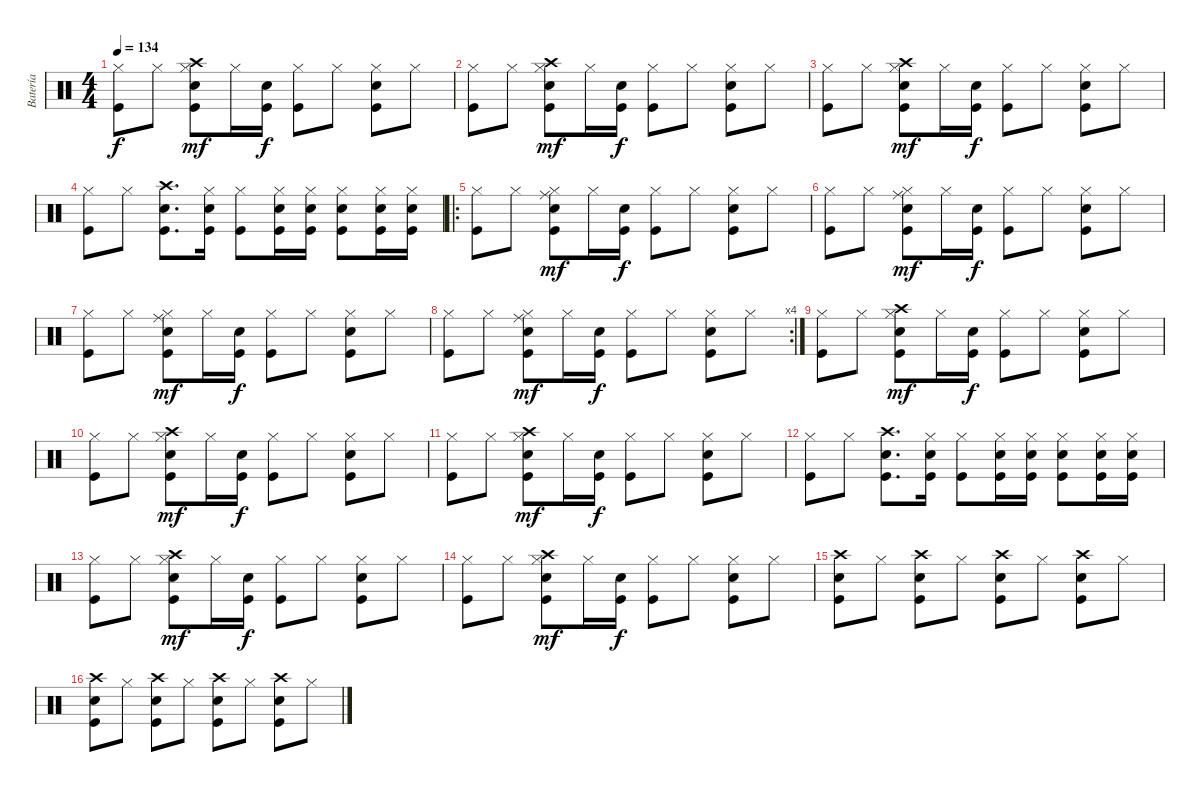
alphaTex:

\track ("Batería" "Batería") {instrument percussion}
\staff {score}
\articulation defaults
\ts (4 4)
\tempo 134
\clef neutral
\ks c
("Hi-Hat (closed)" "Kick (hit)").8{dy f} "Hi-Hat (closed)".8 ("Snare (hit) 2" "Crash high (hit)" "Kick (hit)" "Hi-Hat (closed)").8{dy mf} "Hi-Hat (closed)".16 ("Snare (hit) 2" "Kick (hit)").16{dy f} ("Hi-Hat (closed)" "Kick (hit)").8 "Hi-Hat (closed)".8 ("Hi-Hat (closed)" "Snare (hit) 2" "Kick (hit)").8 "Hi-Hat (closed)".8 |
("Hi-Hat (closed)" "Kick (hit)").8 "Hi-Hat (closed)".8 ("Snare (hit) 2" "Crash high (hit)" "Kick (hit)" "Hi-Hat (closed)").8{dy mf} "Hi-Hat (closed)".16 ("Snare (hit) 2" "Kick (hit)").16{dy f} ("Hi-Hat (closed)" "Kick (hit)").8 "Hi-Hat (closed)".8 ("Hi-Hat (closed)" "Snare (hit) 2" "Kick (hit)").8 "Hi-Hat (closed)".8 |
("Hi-Hat (closed)" "Kick (hit)").8 "Hi-Hat (closed)".8 ("Snare (hit) 2" "Crash high (hit)" "Kick (hit)" "Hi-Hat (closed)").8{dy mf} "Hi-Hat (closed)".16 ("Snare (hit) 2" "Kick (hit)").16{dy f} ("Hi-Hat (closed)" "Kick (hit)").8 "Hi-Hat (closed)".8 ("Hi-Hat (closed)" "Snare (hit) 2" "Kick (hit)").8 "Hi-Hat (closed)".8 |
("Hi-Hat (closed)" "Kick (hit)").8 "Hi-Hat (closed)".8 ("Snare (hit) 2" "Crash high (hit)" "Kick (hit)").8{d} ("Hi-Hat (closed)" "Snare (hit) 2" "Kick (hit)").16 ("Hi-Hat (closed)" "Kick (hit)").8 ("Hi-Hat (closed)" "Snare (hit) 2" "Kick (hit)").16 ("Hi-Hat (closed)" "Snare (hit) 2" "Kick (hit)").16 ("Hi-Hat (closed)" "Snare (hit) 2" "Kick (hit)").8 ("Hi-Hat (closed)" "Snare (hit) 2" "Kick (hit)").16 ("Hi-Hat (closed)" "Snare (hit) 2" "Kick (hit)").16 |
\ro
("Hi-Hat (closed)" "Kick (hit)").8 "Hi-Hat (closed)".8 ("Snare (hit) 2" "Ride (middle)" "Kick (hit)" "Hi-Hat (closed)").8{dy mf} "Hi-Hat (closed)".16 ("Snare (hit) 2" "Kick (hit)").16{dy f} ("Hi-Hat (closed)" "Kick (hit)").8 "Hi-Hat (closed)".8 ("Hi-Hat (closed)" "Snare (hit) 2" "Kick (hit)").8 "Hi-Hat (closed)".8 |
("Hi-Hat (closed)" "Kick (hit)").8 "Hi-Hat (closed)".8 ("Snare (hit) 2" "Ride (middle)" "Kick (hit)" "Hi-Hat (closed)").8{dy mf} "Hi-Hat (closed)".16 ("Snare (hit) 2" "Kick (hit)").16{dy f} ("Hi-Hat (closed)" "Kick (hit)").8 "Hi-Hat (closed)".8 ("Hi-Hat (closed)" "Snare (hit) 2" "Kick (hit)").8 "Hi-Hat (closed)".8 |
("Hi-Hat (closed)" "Kick (hit)").8 "Hi-Hat (closed)".8 ("Snare (hit) 2" "Ride (middle)" "Kick (hit)" "Hi-Hat (closed)").8{dy mf} "Hi-Hat (closed)".16 ("Snare (hit) 2" "Kick (hit)").16{dy f} ("Hi-Hat (closed)" "Kick (hit)").8 "Hi-Hat (closed)".8 ("Hi-Hat (closed)" "Snare (hit) 2" "Kick (hit)").8 "Hi-Hat (closed)".8 |
\rc 4
("Hi-Hat (closed)" "Kick (hit)").8 "Hi-Hat (closed)".8 ("Snare (hit) 2" "Ride (middle)" "Kick (hit)" "Hi-Hat (closed)").8{dy mf} "Hi-Hat (closed)".16 ("Snare (hit) 2" "Kick (hit)").16{dy f} ("Hi-Hat (closed)" "Kick (hit)").8 "Hi-Hat (closed)".8 ("Hi-Hat (closed)" "Snare (hit) 2" "Kick (hit)").8 "Hi-Hat (closed)".8 |
("Hi-Hat (closed)" "Kick (hit)").8 "Hi-Hat (closed)".8 ("Snare (hit) 2" "Crash high (hit)" "Kick (hit)" "Hi-Hat (closed)").8{dy mf} "Hi-Hat (closed)".16 ("Snare (hit) 2" "Kick (hit)").16{dy f} ("Hi-Hat (closed)" "Kick (hit)").8 "Hi-Hat (closed)".8 ("Hi-Hat (closed)" "Snare (hit) 2" "Kick (hit)").8 "Hi-Hat (closed)".8 |
("Hi-Hat (closed)" "Kick (hit)").8 "Hi-Hat (closed)".8 ("Snare (hit) 2" "Crash high (hit)" "Kick (hit)" "Hi-Hat (closed)").8{dy mf} "Hi-Hat (closed)".16 ("Snare (hit) 2" "Kick (hit)").16{dy f} ("Hi-Hat (closed)" "Kick (hit)").8 "Hi-Hat (closed)".8 ("Hi-Hat (closed)" "Snare (hit) 2" "Kick (hit)").8 "Hi-Hat (closed)".8 |
("Hi-Hat (closed)" "Kick (hit)").8 "Hi-Hat (closed)".8 ("Snare (hit) 2" "Crash high (hit)" "Kick (hit)" "Hi-Hat (closed)").8{dy mf} "Hi-Hat (closed)".16 ("Snare (hit) 2" "Kick (hit)").16{dy f} ("Hi-Hat (closed)" "Kick (hit)").8 "Hi-Hat (closed)".8 ("Hi-Hat (closed)" "Snare (hit) 2" "Kick (hit)").8 "Hi-Hat (closed)".8 |
("Hi-Hat (closed)" "Kick (hit)").8 "Hi-Hat (closed)".8 ("Snare (hit) 2" "Crash high (hit)" "Kick (hit)").8{d} ("Hi-Hat (closed)" "Snare (hit) 2" "Kick (hit)").16 ("Hi-Hat (closed)" "Kick (hit)").8 ("Hi-Hat (closed)" "Snare (hit) 2" "Kick (hit)").16 ("Hi-Hat (closed)" "Snare (hit) 2" "Kick (hit)").16 ("Hi-Hat (closed)" "Snare (hit) 2" "Kick (hit)").8 ("Hi-Hat (closed)" "Snare (hit) 2" "Kick (hit)").16 ("Hi-Hat (closed)" "Snare (hit) 2" "Kick (hit)").16 |
("Hi-Hat (closed)" "Kick (hit)").8 "Hi-Hat (closed)".8 ("Snare (hit) 2" "Crash high (hit)" "Kick (hit)" "Hi-Hat (closed)").8{dy mf} "Hi-Hat (closed)".16 ("Snare (hit) 2" "Kick (hit)").16{dy f} ("Hi-Hat (closed)" "Kick (hit)").8 "Hi-Hat (closed)".8 ("Hi-Hat (closed)" "Snare (hit) 2" "Kick (hit)").8 "Hi-Hat (closed)".8 |
("Hi-Hat (closed)" "Kick (hit)").8 "Hi-Hat (closed)".8 ("Snare (hit) 2" "Crash high (hit)" "Kick (hit)" "Hi-Hat (closed)").8{dy mf} "Hi-Hat (closed)".16 ("Snare (hit) 2" "Kick (hit)").16{dy f} ("Hi-Hat (closed)" "Kick (hit)").8 "Hi-Hat (closed)".8 ("Hi-Hat (closed)" "Snare (hit) 2" "Kick (hit)").8 "Hi-Hat (closed)".8 |
("Snare (hit) 2" "Crash high (hit)" "Kick (hit)").8 "Hi-Hat (closed)".8 ("Snare (hit) 2" "Crash high (hit)" "Kick (hit)").8 "Hi-Hat (closed)".8 ("Snare (hit) 2" "Crash high (hit)" "Kick (hit)").8 "Hi-Hat (closed)".8 ("Snare (hit) 2" "Crash high (hit)" "Kick (hit)").8 "Hi-Hat (closed)".8 |
("Snare (hit) 2" "Crash high (hit)" "Kick (hit)").8 "Hi-Hat (closed)".8 ("Snare (hit) 2" "Crash high (hit)" "Kick (hit)").8 "Hi-Hat (closed)".8 ("Snare (hit) 2" "Crash high (hit)" "Kick (hit)").8 "Hi-Hat (closed)".8 ("Snare (hit) 2" "Crash high (hit)" "Kick (hit)").8 "Hi-Hat (closed)".8
